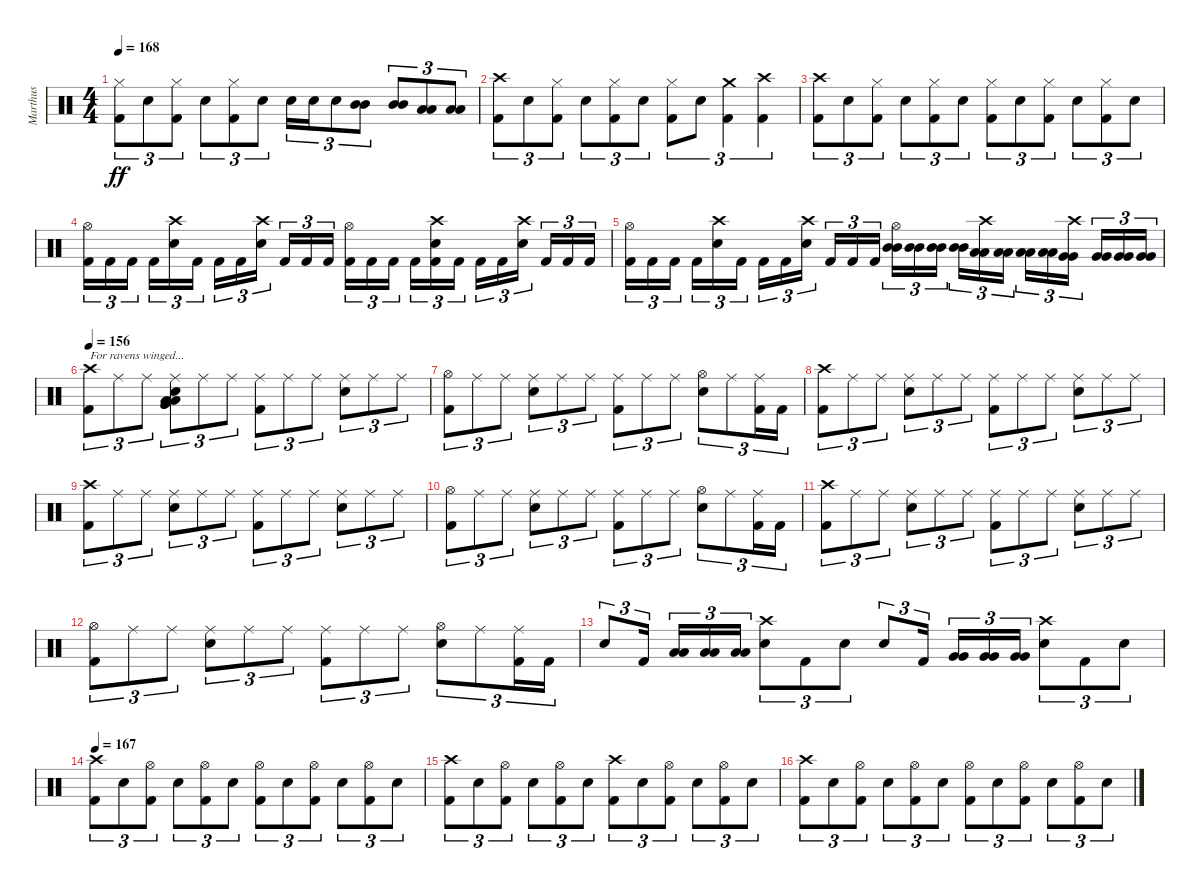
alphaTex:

\track ("Marthus" "Marthus") {instrument percussion}
\staff {score}
\articulation defaults
\ts (4 4)
\tempo 168
\clef neutral
\ks c
("Hi-Hat (closed)" "Kick (hit) 2").8{tu (3 2) dy ff} "Electric Snare (hit)".8{tu (3 2)} ("Hi-Hat (closed)" "Kick (hit) 2").8{tu (3 2)} "Electric Snare (hit)".8{tu (3 2)} ("Hi-Hat (closed)" "Kick (hit) 2").8{tu (3 2)} "Electric Snare (hit)".8{tu (3 2)} "Electric Snare (hit)".16{tu (3 2)} "Electric Snare (hit)".16{tu (3 2)} "Electric Snare (hit)".8{tu (3 2)} ("Mid Tom (hit)" "Mid Tom (hit)").8{tu (3 2)} ("Mid Tom (hit)" "Mid Tom (hit)").8{tu (3 2)} ("Low Tom (hit)" "Low Tom (hit)").8{tu (3 2)} ("Low Tom (hit)" "Low Tom (hit)").8{tu (3 2)} |
("Crash high (hit)" "Kick (hit) 2").8{tu (3 2)} "Electric Snare (hit)".8{tu (3 2)} ("Hi-Hat (closed)" "Kick (hit) 2").8{tu (3 2)} "Electric Snare (hit)".8{tu (3 2)} ("Hi-Hat (closed)" "Kick (hit) 2").8{tu (3 2)} "Electric Snare (hit)".8{tu (3 2)} ("Hi-Hat (closed)" "Kick (hit) 2").8{tu (3 2)} "Electric Snare (hit)".8{tu (3 2)} ("Crash medium (hit)" "Kick (hit) 2").4{tu (3 2)} ("Crash high (hit)" "Kick (hit) 2").4{tu (3 2)} |
("Crash high (hit)" "Kick (hit) 2").8{tu (3 2)} "Electric Snare (hit)".8{tu (3 2)} ("Hi-Hat (closed)" "Kick (hit) 2").8{tu (3 2)} "Electric Snare (hit)".8{tu (3 2)} ("Hi-Hat (closed)" "Kick (hit) 2").8{tu (3 2)} "Electric Snare (hit)".8{tu (3 2)} ("Hi-Hat (closed)" "Kick (hit) 2").8{tu (3 2)} "Electric Snare (hit)".8{tu (3 2)} ("Hi-Hat (closed)" "Kick (hit) 2").8{tu (3 2)} "Electric Snare (hit)".8{tu (3 2)} ("Hi-Hat (closed)" "Kick (hit) 2").8{tu (3 2)} "Electric Snare (hit)".8{tu (3 2)} |
("Hi-Hat (open)" "Kick (hit) 2").16{tu (3 2)} "Kick (hit) 2".16{tu (3 2)} "Kick (hit) 2".16{tu (3 2) beam splitsecondary} "Kick (hit) 2".16{tu (3 2)} ("Crash high (hit)" "Electric Snare (hit)").16{tu (3 2)} "Kick (hit) 2".16{tu (3 2)} "Kick (hit) 2".16{tu (3 2)} "Kick (hit) 2".16{tu (3 2)} ("Crash high (hit)" "Electric Snare (hit)").16{tu (3 2) beam splitsecondary} "Kick (hit) 2".16{tu (3 2)} "Kick (hit) 2".16{tu (3 2)} "Kick (hit) 2".16{tu (3 2)} ("Hi-Hat (open)" "Kick (hit) 2").16{tu (3 2)} "Kick (hit) 2".16{tu (3 2)} "Kick (hit) 2".16{tu (3 2) beam splitsecondary} "Kick (hit) 2".16{tu (3 2)} ("Crash high (hit)" "Electric Snare (hit)" "Kick (hit) 2").16{tu (3 2)} "Kick (hit) 2".16{tu (3 2)} "Kick (hit) 2".16{tu (3 2)} "Kick (hit) 2".16{tu (3 2)} ("Crash high (hit)" "Electric Snare (hit)").16{tu (3 2) beam splitsecondary} "Kick (hit) 2".16{tu (3 2)} "Kick (hit) 2".16{tu (3 2)} "Kick (hit) 2".16{tu (3 2)} |
("Hi-Hat (open)" "Kick (hit) 2").16{tu (3 2)} "Kick (hit) 2".16{tu (3 2)} "Kick (hit) 2".16{tu (3 2) beam splitsecondary} "Kick (hit) 2".16{tu (3 2)} ("Crash high (hit)" "Electric Snare (hit)").16{tu (3 2)} "Kick (hit) 2".16{tu (3 2)} "Kick (hit) 2".16{tu (3 2)} "Kick (hit) 2".16{tu (3 2)} ("Crash high (hit)" "Electric Snare (hit)").16{tu (3 2) beam splitsecondary} "Kick (hit) 2".16{tu (3 2)} "Kick (hit) 2".16{tu (3 2)} "Kick (hit) 2".16{tu (3 2)} ("Hi-Hat (open)" "Mid Tom (hit)" "Mid Tom (hit)").16{tu (3 2)} ("Mid Tom (hit)" "Mid Tom (hit)").16{tu (3 2)} ("Mid Tom (hit)" "Mid Tom (hit)").16{tu (3 2) beam splitsecondary} ("Mid Tom (hit)" "Mid Tom (hit)").16{tu (3 2)} ("Crash high (hit)" "Low Tom (hit)" "Low Tom (hit)").16{tu (3 2)} ("Low Tom (hit)" "Low Tom (hit)").16{tu (3 2)} ("Low Tom (hit)" "Low Tom (hit)").16{tu (3 2)} ("Low Tom (hit)" "Low Tom (hit)").16{tu (3 2)} ("Crash high (hit)" "Very Low Tom (hit)" "Very Low Tom (hit)").16{tu (3 2) beam splitsecondary} ("Very Low Tom (hit)" "Very Low Tom (hit)").16{tu (3 2)} ("Very Low Tom (hit)" "Very Low Tom (hit)").16{tu (3 2)} ("Very Low Tom (hit)" "Very Low Tom (hit)").16{tu (3 2)} |
\tempo 156
("Crash high (hit)" "Kick (hit) 2").8{tu (3 2) txt "For ravens winged..."} "Ride (middle)".8{tu (3 2)} "Ride (middle)".8{tu (3 2)} ("Ride (middle)" "Very Low Tom (hit)" "Electric Snare (hit)" "Low Floor Tom (hit)" "Very Low Tom (hit)" "Low Floor Tom (hit)").8{tu (3 2)} "Ride (middle)".8{tu (3 2)} "Ride (middle)".8{tu (3 2)} ("Ride (middle)" "Kick (hit) 2").8{tu (3 2)} "Ride (middle)".8{tu (3 2)} "Ride (middle)".8{tu (3 2)} ("Ride (middle)" "Electric Snare (hit)").8{tu (3 2)} "Ride (middle)".8{tu (3 2)} "Ride (middle)".8{tu (3 2)} |
("Hi-Hat (open)" "Kick (hit) 2").8{tu (3 2)} "Ride (middle)".8{tu (3 2)} "Ride (middle)".8{tu (3 2)} ("Ride (middle)" "Electric Snare (hit)").8{tu (3 2)} "Ride (middle)".8{tu (3 2)} "Ride (middle)".8{tu (3 2)} ("Ride (middle)" "Kick (hit) 2").8{tu (3 2)} "Ride (middle)".8{tu (3 2)} "Ride (middle)".8{tu (3 2)} ("Hi-Hat (open)" "Electric Snare (hit)").8{tu (3 2)} "Ride (middle)".8{tu (3 2)} ("Ride (middle)" "Kick (hit) 2").16{tu (3 2)} "Kick (hit) 2".16{tu (3 2)} |
("Crash high (hit)" "Kick (hit) 2").8{tu (3 2)} "Ride (middle)".8{tu (3 2)} "Ride (middle)".8{tu (3 2)} ("Ride (middle)" "Electric Snare (hit)").8{tu (3 2)} "Ride (middle)".8{tu (3 2)} "Ride (middle)".8{tu (3 2)} ("Ride (middle)" "Kick (hit) 2").8{tu (3 2)} "Ride (middle)".8{tu (3 2)} "Ride (middle)".8{tu (3 2)} ("Ride (middle)" "Electric Snare (hit)").8{tu (3 2)} "Ride (middle)".8{tu (3 2)} "Ride (middle)".8{tu (3 2)} |
("Crash high (hit)" "Kick (hit) 2").8{tu (3 2)} "Ride (middle)".8{tu (3 2)} "Ride (middle)".8{tu (3 2)} ("Ride (middle)" "Electric Snare (hit)").8{tu (3 2)} "Ride (middle)".8{tu (3 2)} "Ride (middle)".8{tu (3 2)} ("Ride (middle)" "Kick (hit) 2").8{tu (3 2)} "Ride (middle)".8{tu (3 2)} "Ride (middle)".8{tu (3 2)} ("Ride (middle)" "Electric Snare (hit)").8{tu (3 2)} "Ride (middle)".8{tu (3 2)} "Ride (middle)".8{tu (3 2)} |
("Hi-Hat (open)" "Kick (hit) 2").8{tu (3 2)} "Ride (middle)".8{tu (3 2)} "Ride (middle)".8{tu (3 2)} ("Ride (middle)" "Electric Snare (hit)").8{tu (3 2)} "Ride (middle)".8{tu (3 2)} "Ride (middle)".8{tu (3 2)} ("Ride (middle)" "Kick (hit) 2").8{tu (3 2)} "Ride (middle)".8{tu (3 2)} "Ride (middle)".8{tu (3 2)} ("Hi-Hat (open)" "Electric Snare (hit)").8{tu (3 2)} "Ride (middle)".8{tu (3 2)} ("Ride (middle)" "Kick (hit) 2").16{tu (3 2)} "Kick (hit) 2".16{tu (3 2)} |
("Crash high (hit)" "Kick (hit) 2").8{tu (3 2)} "Ride (middle)".8{tu (3 2)} "Ride (middle)".8{tu (3 2)} ("Ride (middle)" "Electric Snare (hit)").8{tu (3 2)} "Ride (middle)".8{tu (3 2)} "Ride (middle)".8{tu (3 2)} ("Ride (middle)" "Kick (hit) 2").8{tu (3 2)} "Ride (middle)".8{tu (3 2)} "Ride (middle)".8{tu (3 2)} ("Ride (middle)" "Electric Snare (hit)").8{tu (3 2)} "Ride (middle)".8{tu (3 2)} "Ride (middle)".8{tu (3 2)} |
("Hi-Hat (open)" "Kick (hit) 2").8{tu (3 2)} "Ride (middle)".8{tu (3 2)} "Ride (middle)".8{tu (3 2)} ("Ride (middle)" "Electric Snare (hit)").8{tu (3 2)} "Ride (middle)".8{tu (3 2)} "Ride (middle)".8{tu (3 2)} ("Ride (middle)" "Kick (hit) 2").8{tu (3 2)} "Ride (middle)".8{tu (3 2)} "Ride (middle)".8{tu (3 2)} ("Hi-Hat (open)" "Electric Snare (hit)").8{tu (3 2)} "Ride (middle)".8{tu (3 2)} ("Ride (middle)" "Kick (hit) 2").16{tu (3 2)} "Kick (hit) 2".16{tu (3 2)} |
"Electric Snare (hit)".8{tu (3 2)} "Kick (hit) 2".16{tu (3 2) beam splitsecondary} ("Low Tom (hit)" "Low Tom (hit)").16{tu (3 2) balance 10} ("Low Tom (hit)" "Low Tom (hit)").16{tu (3 2)} ("Low Tom (hit)" "Low Tom (hit)").16{tu (3 2)} ("Crash high (hit)" "Electric Snare (hit)").8{tu (3 2) balance 8} "Kick (hit) 2".8{tu (3 2)} "Electric Snare (hit)".8{tu (3 2)} "Electric Snare (hit)".8{tu (3 2)} "Kick (hit) 2".16{tu (3 2) beam splitsecondary} ("Very Low Tom (hit)" "Very Low Tom (hit)").16{tu (3 2) balance 5} ("Very Low Tom (hit)" "Very Low Tom (hit)").16{tu (3 2)} ("Very Low Tom (hit)" "Very Low Tom (hit)").16{tu (3 2)} ("Crash high (hit)" "Electric Snare (hit)").8{tu (3 2) balance 8} "Kick (hit) 2".8{tu (3 2)} "Electric Snare (hit)".8{tu (3 2)} |
\tempo 167
("Crash high (hit)" "Kick (hit) 2").8{tu (3 2)} "Electric Snare (hit)".8{tu (3 2)} ("Hi-Hat (open)" "Kick (hit) 2").8{tu (3 2)} "Electric Snare (hit)".8{tu (3 2)} ("Hi-Hat (open)" "Kick (hit) 2").8{tu (3 2)} "Electric Snare (hit)".8{tu (3 2)} ("Hi-Hat (open)" "Kick (hit) 2").8{tu (3 2)} "Electric Snare (hit)".8{tu (3 2)} ("Hi-Hat (open)" "Kick (hit) 2").8{tu (3 2)} "Electric Snare (hit)".8{tu (3 2)} ("Hi-Hat (open)" "Kick (hit) 2").8{tu (3 2)} "Electric Snare (hit)".8{tu (3 2)} |
("Crash high (hit)" "Kick (hit) 2").8{tu (3 2)} "Electric Snare (hit)".8{tu (3 2)} ("Hi-Hat (open)" "Kick (hit) 2").8{tu (3 2)} "Electric Snare (hit)".8{tu (3 2)} ("Hi-Hat (open)" "Kick (hit) 2").8{tu (3 2)} "Electric Snare (hit)".8{tu (3 2)} ("Crash high (hit)" "Kick (hit) 2").8{tu (3 2)} "Electric Snare (hit)".8{tu (3 2)} ("Hi-Hat (open)" "Kick (hit) 2").8{tu (3 2)} "Electric Snare (hit)".8{tu (3 2)} ("Hi-Hat (open)" "Kick (hit) 2").8{tu (3 2)} "Electric Snare (hit)".8{tu (3 2)} |
("Crash high (hit)" "Kick (hit) 2").8{tu (3 2)} "Electric Snare (hit)".8{tu (3 2)} ("Hi-Hat (open)" "Kick (hit) 2").8{tu (3 2)} "Electric Snare (hit)".8{tu (3 2)} ("Hi-Hat (open)" "Kick (hit) 2").8{tu (3 2)} "Electric Snare (hit)".8{tu (3 2)} ("Hi-Hat (open)" "Kick (hit) 2").8{tu (3 2)} "Electric Snare (hit)".8{tu (3 2)} ("Hi-Hat (open)" "Kick (hit) 2").8{tu (3 2)} "Electric Snare (hit)".8{tu (3 2)} ("Hi-Hat (open)" "Kick (hit) 2").8{tu (3 2)} "Electric Snare (hit)".8{tu (3 2)}
